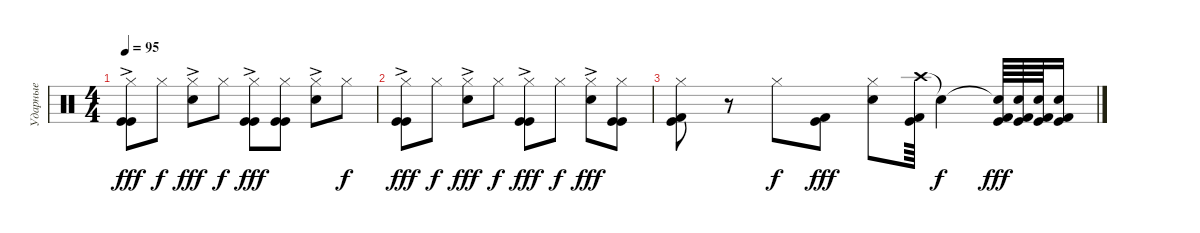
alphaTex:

\track ("Ударные" "Ударные") {instrument percussion}
\staff {score}
\articulation defaults
\ts (4 4)
\tempo 95
\clef neutral
\ks c
("Hi-Hat (closed)"{ac} "Kick (hit)" "Kick (hit)").8{dy fff} "Hi-Hat (closed)".8{dy f} ("Hi-Hat (closed)"{ac} "Snare (hit) 2").8{dy fff} "Hi-Hat (closed)".8{dy f} ("Hi-Hat (closed)"{ac} "Kick (hit)" "Kick (hit)").8{dy fff} ("Hi-Hat (closed)" "Kick (hit)" "Kick (hit)").8 ("Hi-Hat (closed)"{ac} "Snare (hit) 2").8 "Hi-Hat (closed)".8{dy f} |
("Hi-Hat (closed)"{ac} "Kick (hit)" "Kick (hit)").8{dy fff} "Hi-Hat (closed)".8{dy f} ("Hi-Hat (closed)"{ac} "Snare (hit) 2").8{dy fff} "Hi-Hat (closed)".8{dy f} ("Hi-Hat (closed)"{ac} "Kick (hit)" "Kick (hit)").8{dy fff} "Hi-Hat (closed)".8{dy f} ("Hi-Hat (closed)"{ac} "Snare (hit) 2").8{dy fff} ("Hi-Hat (closed)" "Kick (hit)" "Kick (hit)").8 |
("Hi-Hat (closed)" "Kick (hit)" "Kick (hit) 2").8 r.8 "Hi-Hat (closed)".8{dy f} ("Kick (hit)" "Kick (hit) 2").8{dy fff} ("Hi-Hat (closed)" "Snare (hit) 2").8 ("Crash high (hit)" "Kick (hit)" "Kick (hit) 2").64 "Snare (hit)"{t}.4{dy f} ("Snare (hit)"{t} "Kick (hit)" "Kick (hit) 2").64{dy fff} ("Snare (hit)"{t} "Kick (hit)" "Kick (hit) 2").64 ("Snare (hit)"{t} "Kick (hit)" "Kick (hit) 2").64 ("Snare (hit)"{t} "Kick (hit)" "Kick (hit) 2").16
